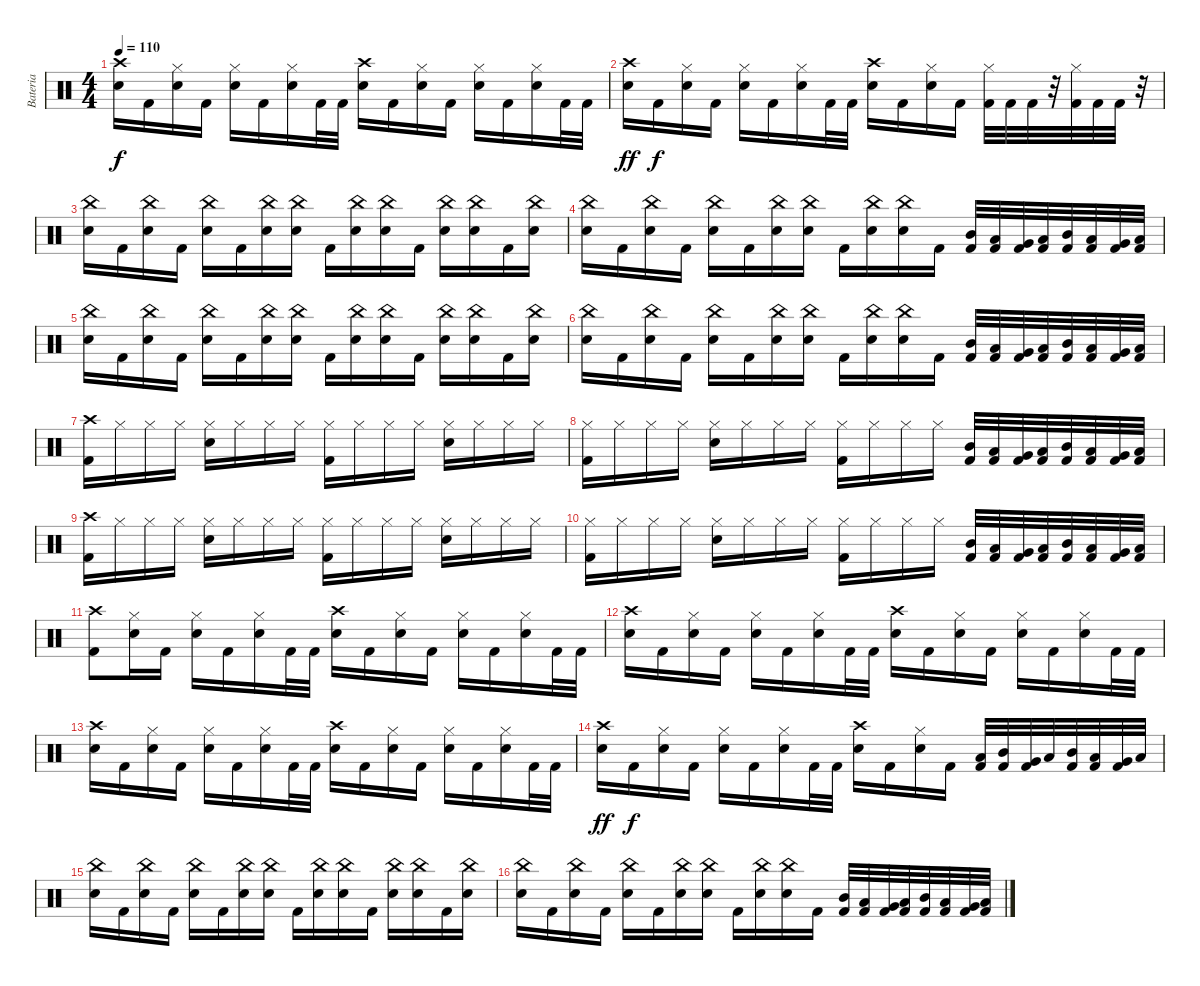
\track ("Bateria" "Bateria") {instrument percussion}
\staff {score}
\articulation defaults
\ts (4 4)
\tempo 110
\clef neutral
\ks c
("Crash high (hit)" "Electric Snare (hit)").16{dy f} "Kick (hit) 2".16 ("Hi-Hat (closed)" "Electric Snare (hit)").16 "Kick (hit) 2".16 ("Hi-Hat (closed)" "Electric Snare (hit)").16 "Kick (hit) 2".16 ("Hi-Hat (closed)" "Electric Snare (hit)").16 "Kick (hit) 2".32 "Kick (hit) 2".32 ("Crash high (hit)" "Electric Snare (hit)").16 "Kick (hit) 2".16 ("Hi-Hat (closed)" "Electric Snare (hit)").16 "Kick (hit) 2".16 ("Hi-Hat (closed)" "Electric Snare (hit)").16 "Kick (hit) 2".16 ("Hi-Hat (closed)" "Electric Snare (hit)").16 "Kick (hit) 2".32 "Kick (hit) 2".32 |
("Crash high (hit)" "Electric Snare (hit)").16{dy ff} "Kick (hit) 2".16{dy f} ("Hi-Hat (closed)" "Electric Snare (hit)").16 "Kick (hit) 2".16 ("Hi-Hat (closed)" "Electric Snare (hit)").16 "Kick (hit) 2".16 ("Hi-Hat (closed)" "Electric Snare (hit)").16 "Kick (hit) 2".32 "Kick (hit) 2".32 ("Crash high (hit)" "Electric Snare (hit)").16 "Kick (hit) 2".16 ("Hi-Hat (closed)" "Electric Snare (hit)").16 "Kick (hit) 2".16 ("Hi-Hat (closed)" "Kick (hit) 2").32 "Kick (hit) 2".32 "Kick (hit) 2".32 r.32 ("Hi-Hat (closed)" "Kick (hit) 2").32 "Kick (hit) 2".32 "Kick (hit) 2".32 r.32 |
("China (hit)" "Electric Snare (hit)").16 "Kick (hit) 2".16 ("China (hit)" "Electric Snare (hit)").16 "Kick (hit) 2".16 ("China (hit)" "Electric Snare (hit)").16 "Kick (hit) 2".16 ("China (hit)" "Electric Snare (hit)").16 ("China (hit)" "Electric Snare (hit)").16 "Kick (hit) 2".16 ("China (hit)" "Electric Snare (hit)").16 ("China (hit)" "Electric Snare (hit)").16 "Kick (hit) 2".16 ("China (hit)" "Electric Snare (hit)").16 ("China (hit)" "Electric Snare (hit)").16 "Kick (hit) 2".16 ("China (hit)" "Electric Snare (hit)").16 |
("China (hit)" "Electric Snare (hit)").16 "Kick (hit) 2".16 ("China (hit)" "Electric Snare (hit)").16 "Kick (hit) 2".16 ("China (hit)" "Electric Snare (hit)").16 "Kick (hit) 2".16 ("China (hit)" "Electric Snare (hit)").16 ("China (hit)" "Electric Snare (hit)").16 "Kick (hit) 2".16 ("China (hit)" "Electric Snare (hit)").16 ("China (hit)" "Electric Snare (hit)").16 "Kick (hit) 2".16 ("Mid Tom (hit)" "Kick (hit) 2").32 ("Low Tom (hit)" "Kick (hit) 2").32 ("Very Low Tom (hit)" "Kick (hit) 2").32 ("Low Floor Tom (hit)" "Kick (hit) 2").32 ("Mid Tom (hit)" "Kick (hit) 2").32 ("Low Tom (hit)" "Kick (hit) 2").32 ("Very Low Tom (hit)" "Kick (hit) 2").32 ("Low Floor Tom (hit)" "Kick (hit) 2").32 |
("China (hit)" "Electric Snare (hit)").16 "Kick (hit) 2".16 ("China (hit)" "Electric Snare (hit)").16 "Kick (hit) 2".16 ("China (hit)" "Electric Snare (hit)").16 "Kick (hit) 2".16 ("China (hit)" "Electric Snare (hit)").16 ("China (hit)" "Electric Snare (hit)").16 "Kick (hit) 2".16 ("China (hit)" "Electric Snare (hit)").16 ("China (hit)" "Electric Snare (hit)").16 "Kick (hit) 2".16 ("China (hit)" "Electric Snare (hit)").16 ("China (hit)" "Electric Snare (hit)").16 "Kick (hit) 2".16 ("China (hit)" "Electric Snare (hit)").16 |
("China (hit)" "Electric Snare (hit)").16 "Kick (hit) 2".16 ("China (hit)" "Electric Snare (hit)").16 "Kick (hit) 2".16 ("China (hit)" "Electric Snare (hit)").16 "Kick (hit) 2".16 ("China (hit)" "Electric Snare (hit)").16 ("China (hit)" "Electric Snare (hit)").16 "Kick (hit) 2".16 ("China (hit)" "Electric Snare (hit)").16 ("China (hit)" "Electric Snare (hit)").16 "Kick (hit) 2".16 ("Mid Tom (hit)" "Kick (hit) 2").32 ("Low Tom (hit)" "Kick (hit) 2").32 ("Very Low Tom (hit)" "Kick (hit) 2").32 ("Low Floor Tom (hit)" "Kick (hit) 2").32 ("Mid Tom (hit)" "Kick (hit) 2").32 ("Low Tom (hit)" "Kick (hit) 2").32 ("Very Low Tom (hit)" "Kick (hit) 2").32 ("Low Floor Tom (hit)" "Kick (hit) 2").32 |
("Crash high (hit)" "Kick (hit) 2").16 "Hi-Hat (closed)".16 "Hi-Hat (closed)".16 "Hi-Hat (closed)".16 ("Hi-Hat (closed)" "Electric Snare (hit)").16 "Hi-Hat (closed)".16 "Hi-Hat (closed)".16 "Hi-Hat (closed)".16 ("Hi-Hat (closed)" "Kick (hit) 2").16 "Hi-Hat (closed)".16 "Hi-Hat (closed)".16 "Hi-Hat (closed)".16 ("Hi-Hat (closed)" "Electric Snare (hit)").16 "Hi-Hat (closed)".16 "Hi-Hat (closed)".16 "Hi-Hat (closed)".16 |
("Hi-Hat (closed)" "Kick (hit) 2").16 "Hi-Hat (closed)".16 "Hi-Hat (closed)".16 "Hi-Hat (closed)".16 ("Hi-Hat (closed)" "Electric Snare (hit)").16 "Hi-Hat (closed)".16 "Hi-Hat (closed)".16 "Hi-Hat (closed)".16 ("Hi-Hat (closed)" "Kick (hit) 2").16 "Hi-Hat (closed)".16 "Hi-Hat (closed)".16 "Hi-Hat (closed)".16 ("Mid Tom (hit)" "Kick (hit) 2").32 ("Low Tom (hit)" "Kick (hit) 2").32 ("Very Low Tom (hit)" "Kick (hit) 2").32 ("Low Floor Tom (hit)" "Kick (hit) 2").32 ("Mid Tom (hit)" "Kick (hit) 2").32 ("Low Tom (hit)" "Kick (hit) 2").32 ("Very Low Tom (hit)" "Kick (hit) 2").32 ("Low Floor Tom (hit)" "Kick (hit) 2").32 |
("Crash high (hit)" "Kick (hit) 2").16 "Hi-Hat (closed)".16 "Hi-Hat (closed)".16 "Hi-Hat (closed)".16 ("Hi-Hat (closed)" "Electric Snare (hit)").16 "Hi-Hat (closed)".16 "Hi-Hat (closed)".16 "Hi-Hat (closed)".16 ("Hi-Hat (closed)" "Kick (hit) 2").16 "Hi-Hat (closed)".16 "Hi-Hat (closed)".16 "Hi-Hat (closed)".16 ("Hi-Hat (closed)" "Electric Snare (hit)").16 "Hi-Hat (closed)".16 "Hi-Hat (closed)".16 "Hi-Hat (closed)".16 |
("Hi-Hat (closed)" "Kick (hit) 2").16 "Hi-Hat (closed)".16 "Hi-Hat (closed)".16 "Hi-Hat (closed)".16 ("Hi-Hat (closed)" "Electric Snare (hit)").16 "Hi-Hat (closed)".16 "Hi-Hat (closed)".16 "Hi-Hat (closed)".16 ("Hi-Hat (closed)" "Kick (hit) 2").16 "Hi-Hat (closed)".16 "Hi-Hat (closed)".16 "Hi-Hat (closed)".16 ("Mid Tom (hit)" "Kick (hit) 2").32 ("Low Tom (hit)" "Kick (hit) 2").32 ("Very Low Tom (hit)" "Kick (hit) 2").32 ("Low Floor Tom (hit)" "Kick (hit) 2").32 ("Mid Tom (hit)" "Kick (hit) 2").32 ("Low Tom (hit)" "Kick (hit) 2").32 ("Very Low Tom (hit)" "Kick (hit) 2").32 ("Low Floor Tom (hit)" "Kick (hit) 2").32 |
("Crash high (hit)" "Kick (hit) 2").8 ("Hi-Hat (closed)" "Electric Snare (hit)").16 "Kick (hit) 2".16 ("Hi-Hat (closed)" "Electric Snare (hit)").16 "Kick (hit) 2".16 ("Hi-Hat (closed)" "Electric Snare (hit)").16 "Kick (hit) 2".32 "Kick (hit) 2".32 ("Crash high (hit)" "Electric Snare (hit)").16 "Kick (hit) 2".16 ("Hi-Hat (closed)" "Electric Snare (hit)").16 "Kick (hit) 2".16 ("Hi-Hat (closed)" "Electric Snare (hit)").16 "Kick (hit) 2".16 ("Hi-Hat (closed)" "Electric Snare (hit)").16 "Kick (hit) 2".32 "Kick (hit) 2".32 |
("Crash high (hit)" "Electric Snare (hit)").16 "Kick (hit) 2".16 ("Hi-Hat (closed)" "Electric Snare (hit)").16 "Kick (hit) 2".16 ("Hi-Hat (closed)" "Electric Snare (hit)").16 "Kick (hit) 2".16 ("Hi-Hat (closed)" "Electric Snare (hit)").16 "Kick (hit) 2".32 "Kick (hit) 2".32 ("Crash high (hit)" "Electric Snare (hit)").16 "Kick (hit) 2".16 ("Hi-Hat (closed)" "Electric Snare (hit)").16 "Kick (hit) 2".16 ("Hi-Hat (closed)" "Electric Snare (hit)").16 "Kick (hit) 2".16 ("Hi-Hat (closed)" "Electric Snare (hit)").16 "Kick (hit) 2".32 "Kick (hit) 2".32 |
("Crash high (hit)" "Electric Snare (hit)").16 "Kick (hit) 2".16 ("Hi-Hat (closed)" "Electric Snare (hit)").16 "Kick (hit) 2".16 ("Hi-Hat (closed)" "Electric Snare (hit)").16 "Kick (hit) 2".16 ("Hi-Hat (closed)" "Electric Snare (hit)").16 "Kick (hit) 2".32 "Kick (hit) 2".32 ("Crash high (hit)" "Electric Snare (hit)").16 "Kick (hit) 2".16 ("Hi-Hat (closed)" "Electric Snare (hit)").16 "Kick (hit) 2".16 ("Hi-Hat (closed)" "Electric Snare (hit)").16 "Kick (hit) 2".16 ("Hi-Hat (closed)" "Electric Snare (hit)").16 "Kick (hit) 2".32 "Kick (hit) 2".32 |
("Crash high (hit)" "Electric Snare (hit)").16{dy ff} "Kick (hit) 2".16{dy f} ("Hi-Hat (closed)" "Electric Snare (hit)").16 "Kick (hit) 2".16 ("Hi-Hat (closed)" "Electric Snare (hit)").16 "Kick (hit) 2".16 ("Hi-Hat (closed)" "Electric Snare (hit)").16 "Kick (hit) 2".32 "Kick (hit) 2".32 ("Crash high (hit)" "Electric Snare (hit)").16 "Kick (hit) 2".16 ("Hi-Hat (closed)" "Electric Snare (hit)").16 "Kick (hit) 2".16 ("Low Tom (hit)" "Kick (hit) 2").32 ("Mid Tom (hit)" "Kick (hit) 2").32 ("Very Low Tom (hit)" "Kick (hit) 2").32 "Low Tom (hit)".32 ("Mid Tom (hit)" "Kick (hit) 2").32 ("Low Tom (hit)" "Kick (hit) 2").32 ("Very Low Tom (hit)" "Kick (hit) 2").32 "Low Floor Tom (hit)".32 |
("China (hit)" "Electric Snare (hit)").16 "Kick (hit) 2".16 ("China (hit)" "Electric Snare (hit)").16 "Kick (hit) 2".16 ("China (hit)" "Electric Snare (hit)").16 "Kick (hit) 2".16 ("China (hit)" "Electric Snare (hit)").16 ("China (hit)" "Electric Snare (hit)").16 "Kick (hit) 2".16 ("China (hit)" "Electric Snare (hit)").16 ("China (hit)" "Electric Snare (hit)").16 "Kick (hit) 2".16 ("China (hit)" "Electric Snare (hit)").16 ("China (hit)" "Electric Snare (hit)").16 "Kick (hit) 2".16 ("China (hit)" "Electric Snare (hit)").16 |
("China (hit)" "Electric Snare (hit)").16 "Kick (hit) 2".16 ("China (hit)" "Electric Snare (hit)").16 "Kick (hit) 2".16 ("China (hit)" "Electric Snare (hit)").16 "Kick (hit) 2".16 ("China (hit)" "Electric Snare (hit)").16 ("China (hit)" "Electric Snare (hit)").16 "Kick (hit) 2".16 ("China (hit)" "Electric Snare (hit)").16 ("China (hit)" "Electric Snare (hit)").16 "Kick (hit) 2".16 ("Mid Tom (hit)" "Kick (hit) 2").32 ("Low Tom (hit)" "Kick (hit) 2").32 ("Very Low Tom (hit)" "Kick (hit) 2").32 ("Low Floor Tom (hit)" "Kick (hit) 2").32 ("Mid Tom (hit)" "Kick (hit) 2").32 ("Low Tom (hit)" "Kick (hit) 2").32 ("Very Low Tom (hit)" "Kick (hit) 2").32 ("Low Floor Tom (hit)" "Kick (hit) 2").32
